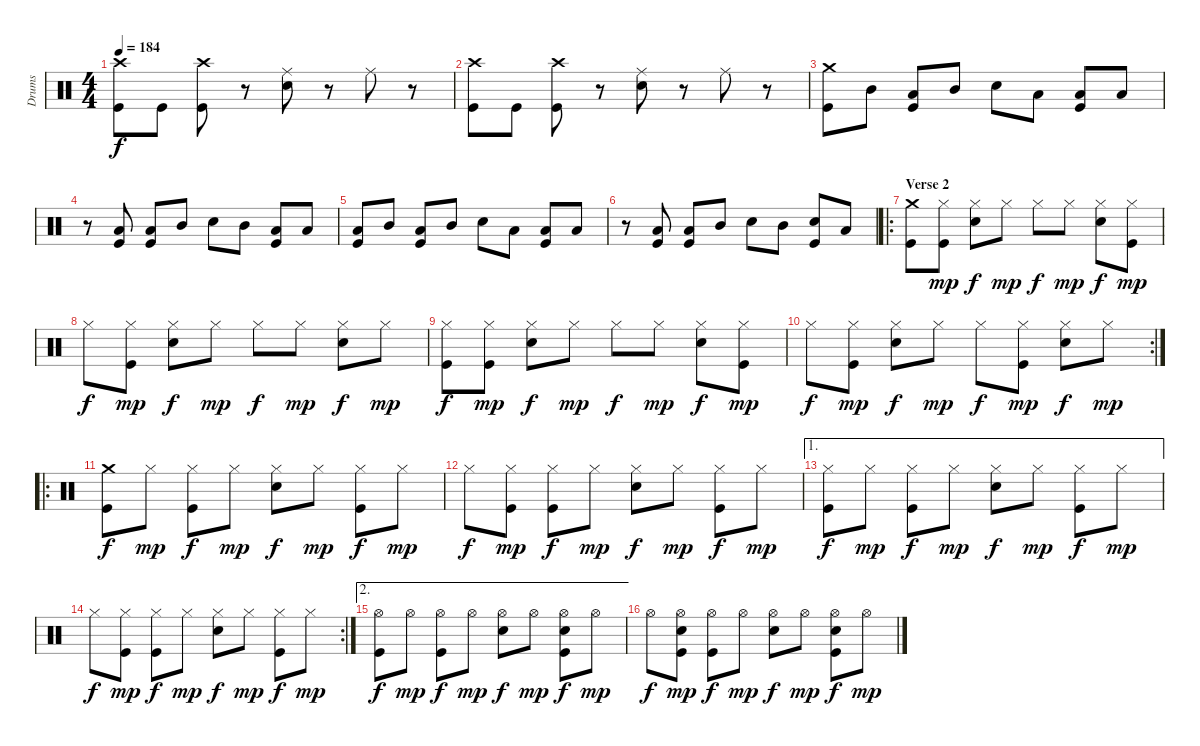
\track ("Drums" "Drums") {instrument percussion}
\staff {score}
\articulation defaults
\ts (4 4)
\tempo 184
\clef neutral
\ks c
("Crash high (hit)" "Kick (hit)").8{dy f} "Kick (hit)".8 ("Crash high (hit)" "Kick (hit)").8 r.8 ("Ride (middle)" "Electric Snare (hit)").8 r.8 "Ride (middle)".8 r.8 |
("Crash high (hit)" "Kick (hit)").8 "Kick (hit)".8 ("Crash high (hit)" "Kick (hit)").8 r.8 ("Ride (middle)" "Electric Snare (hit)").8 r.8 "Ride (middle)".8 r.8 |
("Crash medium (hit)" "Kick (hit)").8 "Mid Tom (hit)".8 ("Low Tom (hit)" "Kick (hit)").8 "Mid Tom (hit)".8 "Electric Snare (hit)".8 "Low Tom (hit)".8 ("Low Tom (hit)" "Kick (hit)").8 "Low Tom (hit)".8 |
r.8 ("Low Tom (hit)" "Kick (hit)").8 ("Low Tom (hit)" "Kick (hit)").8 "Mid Tom (hit)".8 "Electric Snare (hit)".8 "Mid Tom (hit)".8 ("Low Tom (hit)" "Kick (hit)").8 "Low Tom (hit)".8 |
("Low Tom (hit)" "Kick (hit)").8 "Mid Tom (hit)".8 ("Low Tom (hit)" "Kick (hit)").8 "Mid Tom (hit)".8 "Electric Snare (hit)".8 "Low Tom (hit)".8 ("Low Tom (hit)" "Kick (hit)").8 "Low Tom (hit)".8 |
r.8 ("Low Tom (hit)" "Kick (hit)").8 ("Low Tom (hit)" "Kick (hit)").8 "Mid Tom (hit)".8 "Electric Snare (hit)".8 "Mid Tom (hit)".8 ("Electric Snare (hit)" "Kick (hit)").8 "Low Tom (hit)".8 |
\ro
\section ("" "Verse 2")
("Crash medium (hit)" "Kick (hit)").8 ("Hi-Hat (closed)" "Kick (hit)").8{dy mp} ("Hi-Hat (closed)" "Electric Snare (hit)").8{dy f} "Hi-Hat (closed)".8{dy mp} "Hi-Hat (closed)".8{dy f} "Hi-Hat (closed)".8{dy mp} ("Hi-Hat (closed)" "Electric Snare (hit)").8{dy f} ("Hi-Hat (closed)" "Kick (hit)").8{dy mp} |
"Hi-Hat (closed)".8{dy f} ("Hi-Hat (closed)" "Kick (hit)").8{dy mp} ("Hi-Hat (closed)" "Electric Snare (hit)").8{dy f} "Hi-Hat (closed)".8{dy mp} "Hi-Hat (closed)".8{dy f} "Hi-Hat (closed)".8{dy mp} ("Hi-Hat (closed)" "Electric Snare (hit)").8{dy f} "Hi-Hat (closed)".8{dy mp} |
("Hi-Hat (closed)" "Kick (hit)").8{dy f} ("Hi-Hat (closed)" "Kick (hit)").8{dy mp} ("Hi-Hat (closed)" "Electric Snare (hit)").8{dy f} "Hi-Hat (closed)".8{dy mp} "Hi-Hat (closed)".8{dy f} "Hi-Hat (closed)".8{dy mp} ("Hi-Hat (closed)" "Electric Snare (hit)").8{dy f} ("Hi-Hat (closed)" "Kick (hit)").8{dy mp} |
\rc 2 "Hi-Hat (closed)".8{dy f}
("Hi-Hat (closed)" "Kick (hit)").8{dy mp} ("Hi-Hat (closed)" "Electric Snare (hit)").8{dy f} "Hi-Hat (closed)".8{dy mp} "Hi-Hat (closed)".8{dy f} ("Hi-Hat (closed)" "Kick (hit)").8{dy mp} ("Hi-Hat (closed)" "Electric Snare (hit)").8{dy f} "Hi-Hat (closed)".8{dy mp} |
\ro
("Crash medium (hit)" "Kick (hit)").8{dy f} "Hi-Hat (closed)".8{dy mp} ("Hi-Hat (closed)" "Kick (hit)").8{dy f} "Hi-Hat (closed)".8{dy mp} ("Hi-Hat (closed)" "Electric Snare (hit)").8{dy f} "Hi-Hat (closed)".8{dy mp} ("Hi-Hat (closed)" "Kick (hit)").8{dy f} "Hi-Hat (closed)".8{dy mp} |
"Hi-Hat (closed)".8{dy f} ("Hi-Hat (closed)" "Kick (hit)").8{dy mp} ("Hi-Hat (closed)" "Kick (hit)").8{dy f} "Hi-Hat (closed)".8{dy mp} ("Hi-Hat (closed)" "Electric Snare (hit)").8{dy f} "Hi-Hat (closed)".8{dy mp} ("Hi-Hat (closed)" "Kick (hit)").8{dy f} "Hi-Hat (closed)".8{dy mp} |
\ae 1
("Hi-Hat (closed)" "Kick (hit)").8{dy f} "Hi-Hat (closed)".8{dy mp} ("Hi-Hat (closed)" "Kick (hit)").8{dy f} "Hi-Hat (closed)".8{dy mp} ("Hi-Hat (closed)" "Electric Snare (hit)").8{dy f} "Hi-Hat (closed)".8{dy mp} ("Hi-Hat (closed)" "Kick (hit)").8{dy f} "Hi-Hat (closed)".8{dy mp} |
\rc 2 "Hi-Hat (closed)".8{dy f}
("Hi-Hat (closed)" "Kick (hit)").8{dy mp} ("Hi-Hat (closed)" "Kick (hit)").8{dy f} "Hi-Hat (closed)".8{dy mp} ("Hi-Hat (closed)" "Electric Snare (hit)").8{dy f} "Hi-Hat (closed)".8{dy mp} ("Hi-Hat (closed)" "Kick (hit)").8{dy f} "Hi-Hat (closed)".8{dy mp} |
\ae 2
("Hi-Hat (open)" "Kick (hit)").8{dy f} "Hi-Hat (open)".8{dy mp} ("Hi-Hat (open)" "Kick (hit)").8{dy f} "Hi-Hat (open)".8{dy mp} ("Hi-Hat (open)" "Electric Snare (hit)").8{dy f} "Hi-Hat (open)".8{dy mp} ("Hi-Hat (open)" "Electric Snare (hit)" "Kick (hit)").8{dy f} "Hi-Hat (open)".8{dy mp} |
"Hi-Hat (open)".8{dy f} ("Hi-Hat (open)" "Electric Snare (hit)" "Kick (hit)").8{dy mp} ("Hi-Hat (open)" "Kick (hit)").8{dy f} "Hi-Hat (open)".8{dy mp} ("Hi-Hat (open)" "Electric Snare (hit)").8{dy f} "Hi-Hat (open)".8{dy mp} ("Hi-Hat (open)" "Electric Snare (hit)" "Kick (hit)").8{dy f} "Hi-Hat (open)".8{dy mp}
